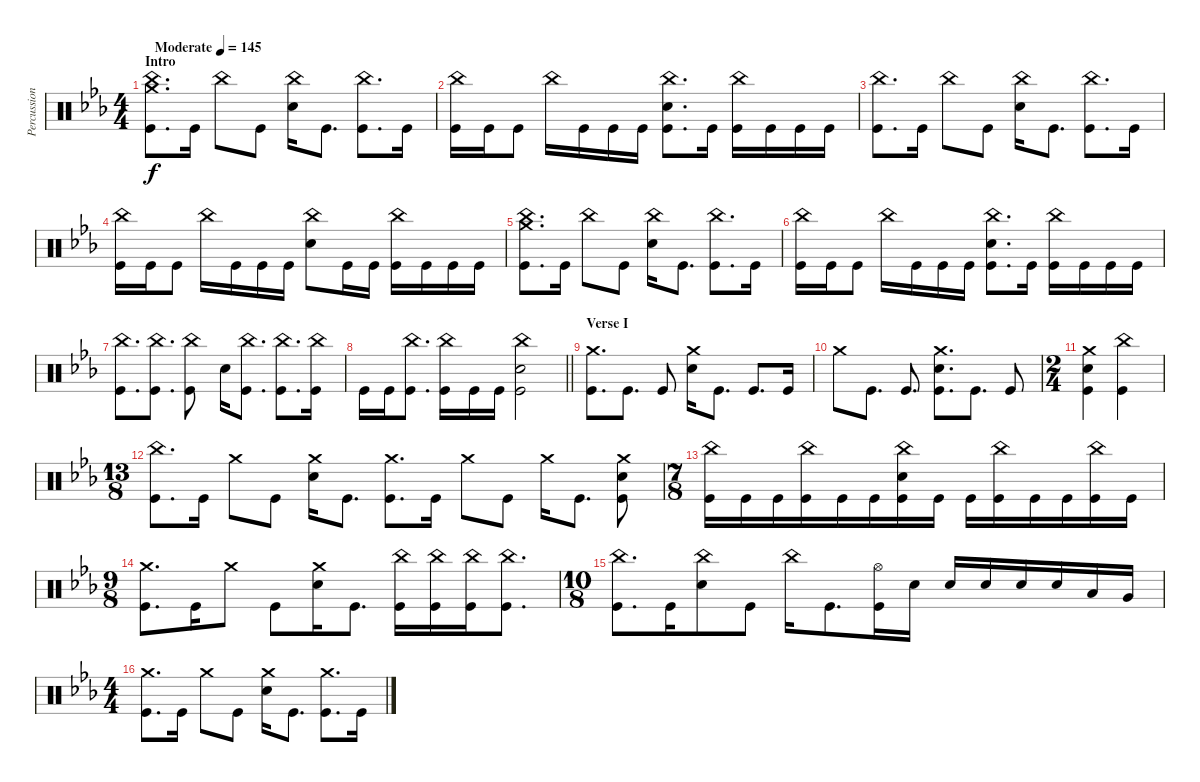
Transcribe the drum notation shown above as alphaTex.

\track ("Percussion" "Percussion") {instrument percussion}
\staff {score}
\articulation defaults
\ts (4 4)
\section ("" "Intro")
\tempo (145 "Moderate")
\clef neutral
\ks eb
("Crash medium (hit)" "China (hit)" "Kick (hit)").8{d dy f} "Kick (hit)".16 "China (hit)".8 "Kick (hit)".8 ("China (hit)" "Electric Snare (hit)").16 "Kick (hit)".8{d} ("China (hit)" "Kick (hit)").8{d} "Kick (hit)".16 |
("China (hit)" "Kick (hit)").16 "Kick (hit)".16 "Kick (hit)".8 "China (hit)".16 "Kick (hit)".16 "Kick (hit)".16 "Kick (hit)".16 ("China (hit)" "Electric Snare (hit)" "Kick (hit)").8{d} "Kick (hit)".16 ("China (hit)" "Kick (hit)").16 "Kick (hit)".16 "Kick (hit)".16 "Kick (hit)".16 |
("China (hit)" "Kick (hit)").8{d} "Kick (hit)".16 "China (hit)".8 "Kick (hit)".8 ("China (hit)" "Electric Snare (hit)").16 "Kick (hit)".8{d} ("China (hit)" "Kick (hit)").8{d} "Kick (hit)".16 |
("China (hit)" "Kick (hit)").16 "Kick (hit)".16 "Kick (hit)".8 "China (hit)".16 "Kick (hit)".16 "Kick (hit)".16 "Kick (hit)".16 ("China (hit)" "Electric Snare (hit)").8 "Kick (hit)".16 "Kick (hit)".16 ("China (hit)" "Kick (hit)").16 "Kick (hit)".16 "Kick (hit)".16 "Kick (hit)".16 |
("Crash medium (hit)" "China (hit)" "Kick (hit)").8{d} "Kick (hit)".16 "China (hit)".8 "Kick (hit)".8 ("China (hit)" "Electric Snare (hit)").16 "Kick (hit)".8{d} ("China (hit)" "Kick (hit)").8{d} "Kick (hit)".16 |
("China (hit)" "Kick (hit)").16 "Kick (hit)".16 "Kick (hit)".8 "China (hit)".16 "Kick (hit)".16 "Kick (hit)".16 "Kick (hit)".16 ("China (hit)" "Electric Snare (hit)" "Kick (hit)").8{d} "Kick (hit)".16 ("China (hit)" "Kick (hit)").16 "Kick (hit)".16 "Kick (hit)".16 "Kick (hit)".16 |
("China (hit)" "Kick (hit)").8{d} ("China (hit)" "Kick (hit)").8{d} ("China (hit)" "Kick (hit)").8 "Electric Snare (hit)".16 ("China (hit)" "Kick (hit)").8{d} ("China (hit)" "Kick (hit)").8{d} ("China (hit)" "Kick (hit)").16 |
\barLineRight lightlight "Kick (hit)".16 "Kick (hit)".16
("China (hit)" "Kick (hit)").8{d} ("China (hit)" "Kick (hit)").16 "Kick (hit)".16 "Kick (hit)".16 ("China (hit)" "Electric Snare (hit)" "Kick (hit)").2 |
\section ("" "Verse I")
("Crash medium (hit)" "Kick (hit)").8{d} "Kick (hit)".8{d} "Kick (hit)".8 ("Crash medium (hit)" "Electric Snare (hit)").16 "Kick (hit)".8{d} "Kick (hit)".8{d} "Kick (hit)".16 |
"Crash medium (hit)".8 "Kick (hit)".8{d} "Kick (hit)".8{d} ("Crash medium (hit)" "Electric Snare (hit)" "Kick (hit)").8{d} "Kick (hit)".8{d} "Kick (hit)".8 |
\ts (2 4)
("Crash medium (hit)" "Electric Snare (hit)" "Kick (hit)").4 ("China (hit)" "Kick (hit)").4 |
\ts (13 8)
("China (hit)" "Kick (hit)").8{d} "Kick (hit)".16 "Crash medium (hit)".8 "Kick (hit)".8 ("Crash medium (hit)" "Electric Snare (hit)").16 "Kick (hit)".8{d} ("Crash medium (hit)" "Kick (hit)").8{d} "Kick (hit)".16 "Crash medium (hit)".8 "Kick (hit)".8 "Crash medium (hit)".16 "Kick (hit)".8{d} ("Crash medium (hit)" "Electric Snare (hit)" "Kick (hit)").8 |
\ts (7 8)
("China (hit)" "Kick (hit)").16 "Kick (hit)".16 "Kick (hit)".16 ("China (hit)" "Kick (hit)").16 "Kick (hit)".16 "Kick (hit)".16 ("China (hit)" "Electric Snare (hit)" "Kick (hit)").16 "Kick (hit)".16 "Kick (hit)".16 ("China (hit)" "Kick (hit)").16 "Kick (hit)".16 "Kick (hit)".16 ("China (hit)" "Kick (hit)").16 "Kick (hit)".16 |
\ts (9 8)
("Crash medium (hit)" "Kick (hit)").8{d} "Kick (hit)".16 "Crash medium (hit)".8 "Kick (hit)".8 ("Crash medium (hit)" "Electric Snare (hit)").16 "Kick (hit)".8{d} ("China (hit)" "Kick (hit)").16 ("China (hit)" "Kick (hit)").16 ("China (hit)" "Kick (hit)").16 ("China (hit)" "Kick (hit)").8{d} |
\ts (10 8)
("China (hit)" "Kick (hit)").8{d} "Kick (hit)".16 ("China (hit)" "Electric Snare (hit)").8 "Kick (hit)".8 "China (hit)".16 "Kick (hit)".8{d} ("Hi-Hat (open)" "Kick (hit)").16 "Electric Snare (hit)".16 "Electric Snare (hit)".16 "Electric Snare (hit)".16 "Electric Snare (hit)".16 "Electric Snare (hit)".16 "Low Tom (hit)".16 "Very Low Tom (hit)".16 |
\ts (4 4)
("Crash medium (hit)" "Kick (hit)").8{d} "Kick (hit)".16 "Crash medium (hit)".8 "Kick (hit)".8 ("Crash medium (hit)" "Electric Snare (hit)").16 "Kick (hit)".8{d} ("Crash medium (hit)" "Kick (hit)").8{d} "Kick (hit)".16
